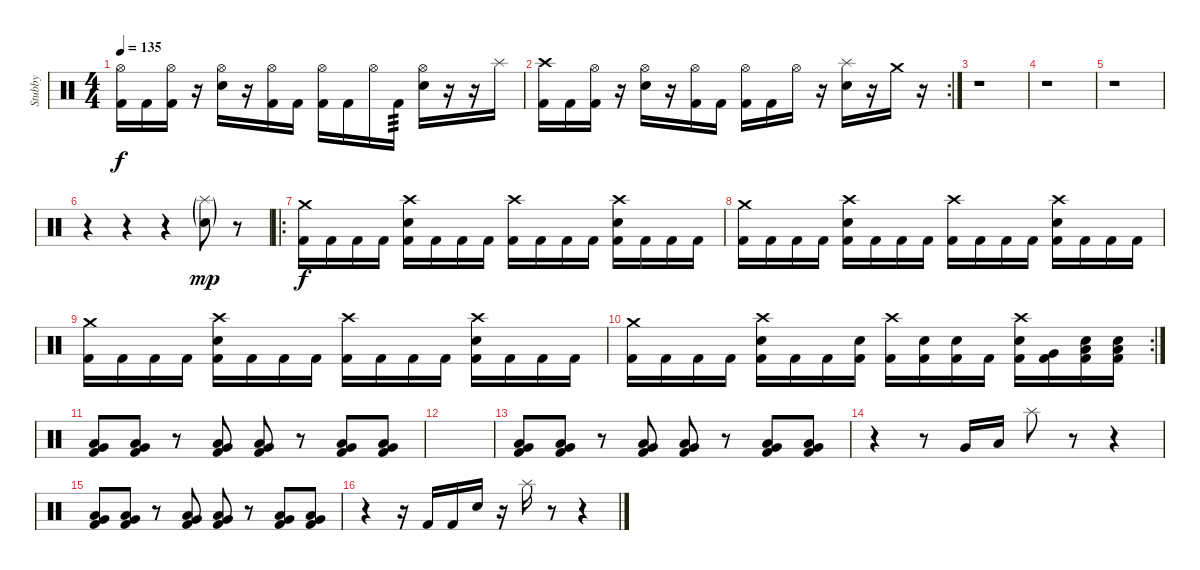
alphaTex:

\track ("Stubby" "Stubby") {instrument percussion}
\staff {score}
\articulation defaults
\ts (4 4)
\tempo 135
\clef neutral
\ks c
("Hi-Hat (open)" "Kick (hit) 2").16{dy f} "Kick (hit) 2".16 ("Hi-Hat (open)" "Kick (hit) 2").16 r.16 ("Hi-Hat (open)" "Electric Snare (hit)").16 r.16 ("Hi-Hat (open)" "Kick (hit) 2").16 "Kick (hit) 2".16 ("Hi-Hat (open)" "Kick (hit) 2").16 "Kick (hit) 2".16 "Hi-Hat (open)".16 "Kick (hit) 2".16{tp 3} ("Hi-Hat (open)" "Electric Snare (hit)").16 r.16 r.16 "Splash (hit)".16 |
\rc 2
("Crash high (hit)" "Kick (hit) 2").16 "Kick (hit) 2".16 ("Hi-Hat (open)" "Kick (hit) 2").16 r.16 ("Hi-Hat (open)" "Electric Snare (hit)").16 r.16 ("Hi-Hat (open)" "Kick (hit) 2").16 "Kick (hit) 2".16 ("Hi-Hat (open)" "Kick (hit) 2").16 "Kick (hit) 2".16 "Hi-Hat (open)".16 r.16 ("Splash (hit)" "Electric Snare (hit)").16 r.16 "Crash medium (hit)".16 r.16 |
r.1 |
r.1 |
r.1 |
r.4 r.4 r.4 ("Splash (hit)"{g} "Electric Snare (hit)"{g}).8{dy mp} r.8 |
\ro
("Crash medium (hit)" "Kick (hit) 2").16{dy f} "Kick (hit) 2".16 "Kick (hit) 2".16 "Kick (hit) 2".16 ("Crash high (hit)" "Electric Snare (hit)" "Kick (hit) 2").16 "Kick (hit) 2".16 "Kick (hit) 2".16 "Kick (hit) 2".16 ("Crash high (hit)" "Kick (hit) 2").16 "Kick (hit) 2".16 "Kick (hit) 2".16 "Kick (hit) 2".16 ("Crash high (hit)" "Electric Snare (hit)" "Kick (hit) 2").16 "Kick (hit) 2".16 "Kick (hit) 2".16 "Kick (hit) 2".16 |
("Crash medium (hit)" "Kick (hit) 2").16 "Kick (hit) 2".16 "Kick (hit) 2".16 "Kick (hit) 2".16 ("Crash high (hit)" "Electric Snare (hit)" "Kick (hit) 2").16 "Kick (hit) 2".16 "Kick (hit) 2".16 "Kick (hit) 2".16 ("Crash high (hit)" "Kick (hit) 2").16 "Kick (hit) 2".16 "Kick (hit) 2".16 "Kick (hit) 2".16 ("Crash high (hit)" "Electric Snare (hit)" "Kick (hit) 2").16 "Kick (hit) 2".16 "Kick (hit) 2".16 "Kick (hit) 2".16 |
("Crash medium (hit)" "Kick (hit) 2").16 "Kick (hit) 2".16 "Kick (hit) 2".16 "Kick (hit) 2".16 ("Crash high (hit)" "Electric Snare (hit)" "Kick (hit) 2").16 "Kick (hit) 2".16 "Kick (hit) 2".16 "Kick (hit) 2".16 ("Crash high (hit)" "Kick (hit) 2").16 "Kick (hit) 2".16 "Kick (hit) 2".16 "Kick (hit) 2".16 ("Crash high (hit)" "Electric Snare (hit)" "Kick (hit) 2").16 "Kick (hit) 2".16 "Kick (hit) 2".16 "Kick (hit) 2".16 |
\rc 2
("Crash medium (hit)" "Kick (hit) 2").16 "Kick (hit) 2".16 "Kick (hit) 2".16 "Kick (hit) 2".16 ("Crash high (hit)" "Electric Snare (hit)" "Kick (hit) 2").16 "Kick (hit) 2".16 "Kick (hit) 2".16 ("Electric Snare (hit)" "Kick (hit) 2").16 ("Crash high (hit)" "Kick (hit) 2").16 ("Electric Snare (hit)" "Kick (hit) 2").16 ("Electric Snare (hit)" "Kick (hit) 2").16 "Kick (hit) 2".16 ("Crash high (hit)" "Electric Snare (hit)" "Kick (hit) 2").16 ("Very Low Tom (hit)" "Kick (hit) 2").16 ("Low Floor Tom (hit)" "Electric Snare (hit)" "Kick (hit) 2").16 ("Low Floor Tom (hit)" "Electric Snare (hit)" "Kick (hit) 2").16 |
("Very Low Tom (hit)" "Low Floor Tom (hit)" "Kick (hit) 2").8 ("Very Low Tom (hit)" "Low Floor Tom (hit)" "Kick (hit) 2").8 r.8 ("Very Low Tom (hit)" "Low Floor Tom (hit)" "Kick (hit) 2").8 ("Very Low Tom (hit)" "Low Floor Tom (hit)" "Kick (hit) 2").8 r.8 ("Very Low Tom (hit)" "Low Floor Tom (hit)" "Kick (hit) 2").8 ("Very Low Tom (hit)" "Low Floor Tom (hit)" "Kick (hit) 2").8 |
|
("Very Low Tom (hit)" "Low Floor Tom (hit)" "Kick (hit) 2").8 ("Very Low Tom (hit)" "Low Floor Tom (hit)" "Kick (hit) 2").8 r.8 ("Very Low Tom (hit)" "Low Floor Tom (hit)" "Kick (hit) 2").8 ("Very Low Tom (hit)" "Low Floor Tom (hit)" "Kick (hit) 2").8 r.8 ("Very Low Tom (hit)" "Low Floor Tom (hit)" "Kick (hit) 2").8 ("Very Low Tom (hit)" "Low Floor Tom (hit)" "Kick (hit) 2").8 |
r.4 r.8 "Very Low Tom (hit)".16 "Low Tom (hit)".16 "Splash (hit)".8 r.8 r.4 |
("Very Low Tom (hit)" "Low Floor Tom (hit)" "Kick (hit) 2").8 ("Very Low Tom (hit)" "Low Floor Tom (hit)" "Kick (hit) 2").8 r.8 ("Very Low Tom (hit)" "Low Floor Tom (hit)" "Kick (hit) 2").8 ("Very Low Tom (hit)" "Low Floor Tom (hit)" "Kick (hit) 2").8 r.8 ("Very Low Tom (hit)" "Low Floor Tom (hit)" "Kick (hit) 2").8 ("Very Low Tom (hit)" "Low Floor Tom (hit)" "Kick (hit) 2").8 |
r.4 r.16 "Kick (hit) 2".16 "Kick (hit) 2".16 "Electric Snare (hit)".16 r.16 "Splash (hit)".16 r.8 r.4
